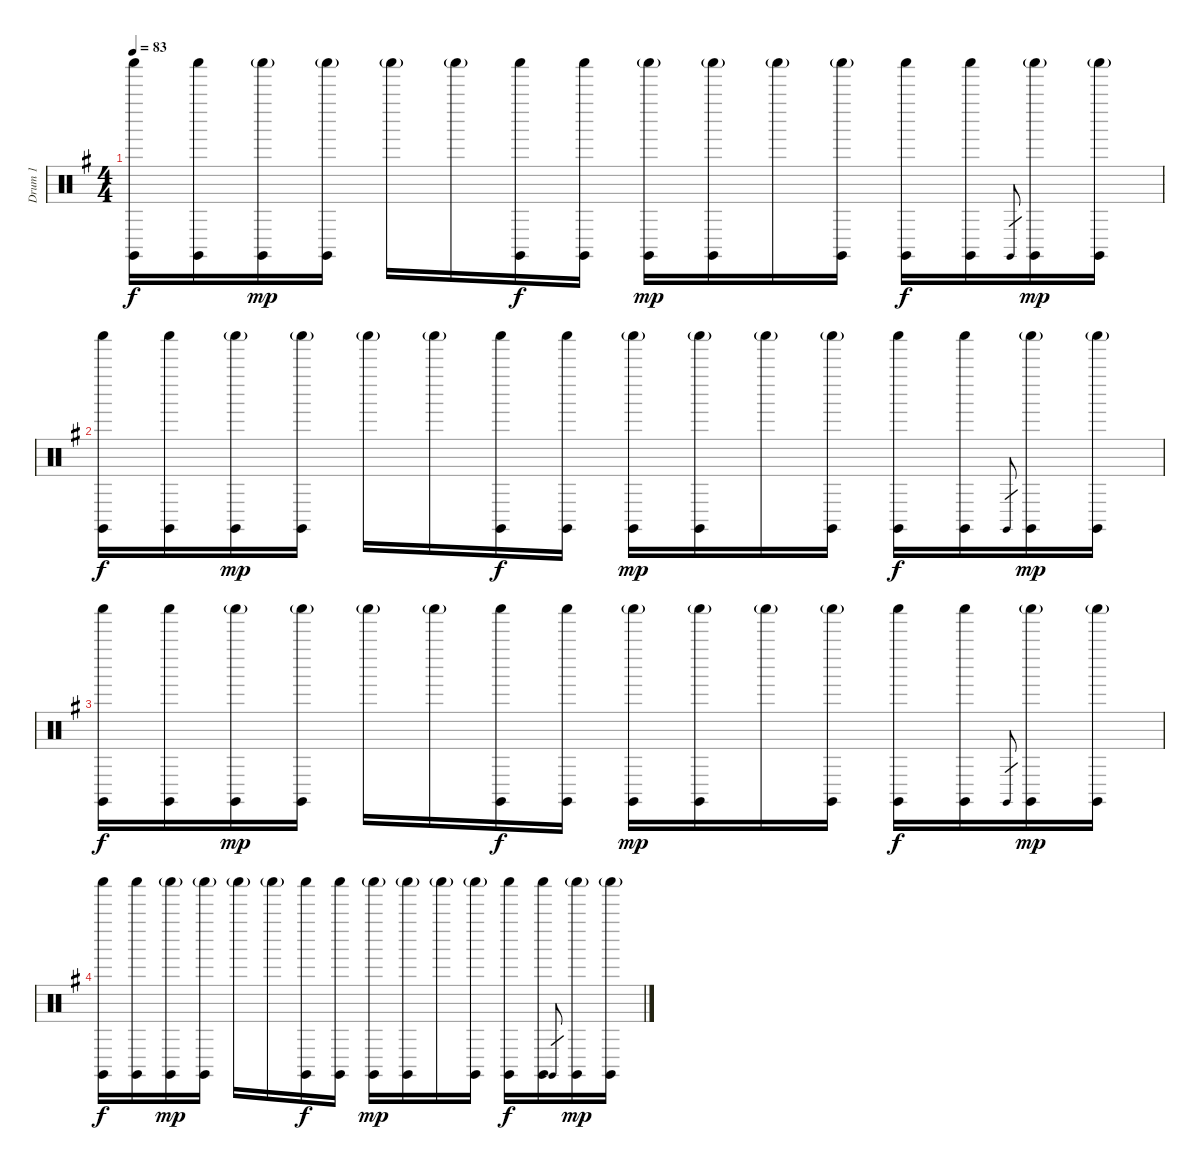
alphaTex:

\track ("Drum 1" "Drum 1") {instrument percussion}
\staff {score}
\articulation defaults
\ts (4 4)
\tempo 83
\clef neutral
\ks eminor
("Shaker (hit)" "Claves (hit)").16{dy f} ("Shaker (hit)" "Claves (hit)").16 ("Shaker (hit)"{g} "Claves (hit)").16{dy mp} ("Shaker (hit)"{g} "Claves (hit)").16 "Shaker (hit)"{g}.16 "Shaker (hit)"{g}.16 ("Shaker (hit)" "Claves (hit)").16{dy f} ("Shaker (hit)" "Claves (hit)").16 ("Shaker (hit)"{g} "Claves (hit)").16{dy mp} ("Shaker (hit)"{g} "Claves (hit)").16 "Shaker (hit)"{g}.16 ("Shaker (hit)"{g} "Claves (hit)").16 ("Shaker (hit)" "Claves (hit)").16{dy f} ("Shaker (hit)" "Claves (hit)").16 "Claves (hit)".8{gr} ("Shaker (hit)"{g} "Claves (hit)").16{dy mp} ("Shaker (hit)"{g} "Claves (hit)").16 |
("Shaker (hit)" "Claves (hit)").16{dy f} ("Shaker (hit)" "Claves (hit)").16 ("Shaker (hit)"{g} "Claves (hit)").16{dy mp} ("Shaker (hit)"{g} "Claves (hit)").16 "Shaker (hit)"{g}.16 "Shaker (hit)"{g}.16 ("Shaker (hit)" "Claves (hit)").16{dy f} ("Shaker (hit)" "Claves (hit)").16 ("Shaker (hit)"{g} "Claves (hit)").16{dy mp} ("Shaker (hit)"{g} "Claves (hit)").16 "Shaker (hit)"{g}.16 ("Shaker (hit)"{g} "Claves (hit)").16 ("Shaker (hit)" "Claves (hit)").16{dy f} ("Shaker (hit)" "Claves (hit)").16 "Claves (hit)".8{gr} ("Shaker (hit)"{g} "Claves (hit)").16{dy mp} ("Shaker (hit)"{g} "Claves (hit)").16 |
("Shaker (hit)" "Claves (hit)").16{dy f} ("Shaker (hit)" "Claves (hit)").16 ("Shaker (hit)"{g} "Claves (hit)").16{dy mp} ("Shaker (hit)"{g} "Claves (hit)").16 "Shaker (hit)"{g}.16 "Shaker (hit)"{g}.16 ("Shaker (hit)" "Claves (hit)").16{dy f} ("Shaker (hit)" "Claves (hit)").16 ("Shaker (hit)"{g} "Claves (hit)").16{dy mp} ("Shaker (hit)"{g} "Claves (hit)").16 "Shaker (hit)"{g}.16 ("Shaker (hit)"{g} "Claves (hit)").16 ("Shaker (hit)" "Claves (hit)").16{dy f} ("Shaker (hit)" "Claves (hit)").16 "Claves (hit)".8{gr} ("Shaker (hit)"{g} "Claves (hit)").16{dy mp} ("Shaker (hit)"{g} "Claves (hit)").16 |
("Shaker (hit)" "Claves (hit)").16{dy f} ("Shaker (hit)" "Claves (hit)").16 ("Shaker (hit)"{g} "Claves (hit)").16{dy mp} ("Shaker (hit)"{g} "Claves (hit)").16 "Shaker (hit)"{g}.16 "Shaker (hit)"{g}.16 ("Shaker (hit)" "Claves (hit)").16{dy f} ("Shaker (hit)" "Claves (hit)").16 ("Shaker (hit)"{g} "Claves (hit)").16{dy mp} ("Shaker (hit)"{g} "Claves (hit)").16 "Shaker (hit)"{g}.16 ("Shaker (hit)"{g} "Claves (hit)").16 ("Shaker (hit)" "Claves (hit)").16{dy f} ("Shaker (hit)" "Claves (hit)").16 "Claves (hit)".8{gr} ("Shaker (hit)"{g} "Claves (hit)").16{dy mp} ("Shaker (hit)"{g} "Claves (hit)").16
